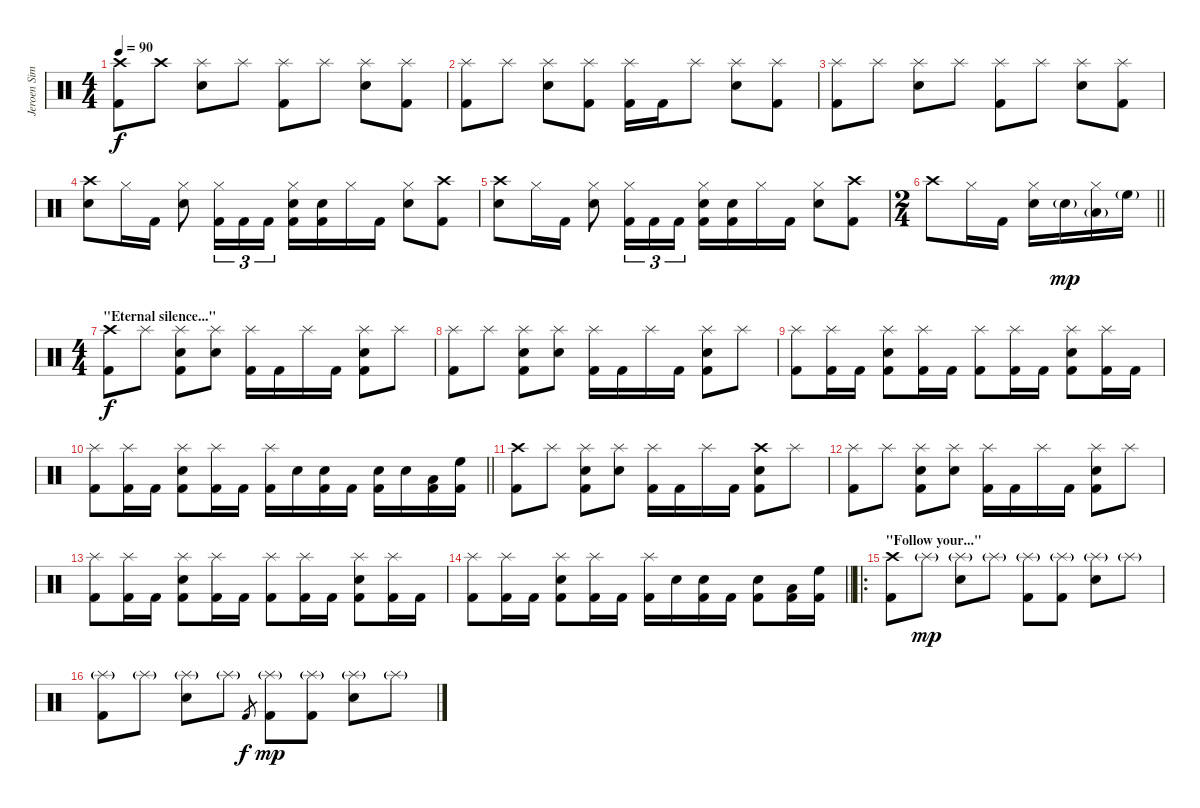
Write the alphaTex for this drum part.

\track ("Jeroen Simons" "Jeroen Sim") {instrument percussion}
\staff {score}
\articulation defaults
\ts (4 4)
\tempo 90
\clef neutral
\ks c
("Kick (hit) 2" "Crash high (hit)").8{dy f} "Crash high (hit)".8 ("Snare (hit) 2" "Splash (hit)").8 "Splash (hit)".8 ("Kick (hit) 2" "Splash (hit)").8 "Splash (hit)".8 ("Snare (hit) 2" "Splash (hit)").8 ("Kick (hit) 2" "Splash (hit)").8 |
("Kick (hit) 2" "Splash (hit)").8 "Splash (hit)".8 ("Snare (hit) 2" "Splash (hit)").8 ("Kick (hit) 2" "Splash (hit)").8 ("Kick (hit) 2" "Splash (hit)").16 "Kick (hit) 2".16 "Splash (hit)".8 ("Snare (hit) 2" "Splash (hit)").8 ("Kick (hit) 2" "Splash (hit)").8 |
("Kick (hit) 2" "Splash (hit)").8 "Splash (hit)".8 ("Snare (hit) 2" "Splash (hit)").8 "Splash (hit)".8 ("Kick (hit) 2" "Splash (hit)").8 "Splash (hit)".8 ("Snare (hit) 2" "Splash (hit)").8 ("Kick (hit) 2" "Splash (hit)").8 |
("Snare (hit) 2" "Crash high (hit)").8 "Hi-Hat (closed)".16 "Kick (hit) 2".16 ("Snare (hit) 2" "Hi-Hat (closed)").8 ("Kick (hit) 2" "Hi-Hat (closed)").16{tu (3 2)} "Kick (hit) 2".16{tu (3 2)} "Kick (hit) 2".16{tu (3 2)} ("Kick (hit) 2" "Snare (hit) 2" "Hi-Hat (closed)").16 ("Kick (hit) 2" "Snare (hit) 2").16 "Hi-Hat (closed)".16 "Kick (hit) 2".16 ("Snare (hit) 2" "Hi-Hat (closed)").8 ("Kick (hit) 2" "Crash high (hit)").8 |
("Snare (hit) 2" "Crash high (hit)").8 "Hi-Hat (closed)".16 "Kick (hit) 2".16 ("Snare (hit) 2" "Hi-Hat (closed)").8 ("Kick (hit) 2" "Hi-Hat (closed)").16{tu (3 2)} "Kick (hit) 2".16{tu (3 2)} "Kick (hit) 2".16{tu (3 2)} ("Kick (hit) 2" "Snare (hit) 2" "Hi-Hat (closed)").16 ("Kick (hit) 2" "Snare (hit) 2").16 "Hi-Hat (closed)".16 "Kick (hit) 2".16 ("Snare (hit) 2" "Hi-Hat (closed)").8 ("Kick (hit) 2" "Crash high (hit)").8 |
\ts (2 4)
\barLineRight lightlight "Crash high (hit)".8 "Hi-Hat (closed)".16 "Kick (hit) 2".16
("Snare (hit) 2" "Hi-Hat (closed)").16 "Snare (hit) 2"{g}.16{dy mp} ("Low Tom (hit)"{g} "Hi-Hat (closed)").16 "High Floor Tom (hit)"{g}.16 |
\ts (4 4)
\section ("" "\"Eternal silence...\"")
("Kick (hit) 2" "Crash high (hit)").8{dy f} "Splash (hit)".8 ("Kick (hit) 2" "Snare (hit) 2" "Splash (hit)").8 ("Snare (hit) 2" "Splash (hit)").8 ("Kick (hit) 2" "Splash (hit)").16 "Kick (hit) 2".16 "Splash (hit)".16 "Kick (hit) 2".16 ("Kick (hit) 2" "Snare (hit) 2" "Splash (hit)").8 "Splash (hit)".8 |
("Kick (hit) 2" "Splash (hit)").8 "Splash (hit)".8 ("Kick (hit) 2" "Snare (hit) 2" "Splash (hit)").8 ("Snare (hit) 2" "Splash (hit)").8 ("Kick (hit) 2" "Splash (hit)").16 "Kick (hit) 2".16 "Splash (hit)".16 "Kick (hit) 2".16 ("Kick (hit) 2" "Snare (hit) 2" "Splash (hit)").8 "Splash (hit)".8 |
("Kick (hit) 2" "Splash (hit)").8 ("Kick (hit) 2" "Splash (hit)").16 "Kick (hit) 2".16 ("Kick (hit) 2" "Snare (hit) 2" "Splash (hit)").8 ("Kick (hit) 2" "Splash (hit)").16 "Kick (hit) 2".16 ("Kick (hit) 2" "Splash (hit)").8 ("Kick (hit) 2" "Splash (hit)").16 "Kick (hit) 2".16 ("Kick (hit) 2" "Snare (hit) 2" "Splash (hit)").8 ("Kick (hit) 2" "Splash (hit)").16 "Kick (hit) 2".16 |
\barLineRight lightlight
("Kick (hit) 2" "Splash (hit)").8 ("Kick (hit) 2" "Splash (hit)").16 "Kick (hit) 2".16 ("Kick (hit) 2" "Snare (hit) 2" "Splash (hit)").8 ("Kick (hit) 2" "Splash (hit)").16 "Kick (hit) 2".16 ("Kick (hit) 2" "Splash (hit)").16 "Snare (hit) 2".16 ("Kick (hit) 2" "Snare (hit) 2").16 "Kick (hit) 2".16 ("Kick (hit) 2" "Snare (hit) 2").16 "Snare (hit) 2".16 ("Kick (hit) 2" "Low Tom (hit)").16 ("Kick (hit) 2" "High Floor Tom (hit)").16 |
("Kick (hit) 2" "Crash high (hit)").8 "Splash (hit)".8 ("Kick (hit) 2" "Snare (hit) 2" "Splash (hit)").8 ("Snare (hit) 2" "Splash (hit)").8 ("Kick (hit) 2" "Splash (hit)").16 "Kick (hit) 2".16 "Splash (hit)".16 "Kick (hit) 2".16 ("Kick (hit) 2" "Snare (hit) 2" "Crash high (hit)").8 "Splash (hit)".8 |
("Kick (hit) 2" "Splash (hit)").8 "Splash (hit)".8 ("Kick (hit) 2" "Snare (hit) 2" "Splash (hit)").8 ("Snare (hit) 2" "Splash (hit)").8 ("Kick (hit) 2" "Splash (hit)").16 "Kick (hit) 2".16 "Splash (hit)".16 "Kick (hit) 2".16 ("Kick (hit) 2" "Snare (hit) 2" "Splash (hit)").8 "Splash (hit)".8 |
("Kick (hit) 2" "Splash (hit)").8 ("Kick (hit) 2" "Splash (hit)").16 "Kick (hit) 2".16 ("Kick (hit) 2" "Snare (hit) 2" "Splash (hit)").8 ("Kick (hit) 2" "Splash (hit)").16 "Kick (hit) 2".16 ("Kick (hit) 2" "Splash (hit)").8 ("Kick (hit) 2" "Splash (hit)").16 "Kick (hit) 2".16 ("Kick (hit) 2" "Snare (hit) 2" "Splash (hit)").8 ("Kick (hit) 2" "Splash (hit)").16 "Kick (hit) 2".16 |
\barLineRight lightlight
("Kick (hit) 2" "Splash (hit)").8 ("Kick (hit) 2" "Splash (hit)").16 "Kick (hit) 2".16 ("Kick (hit) 2" "Snare (hit) 2" "Splash (hit)").8 ("Kick (hit) 2" "Splash (hit)").16 "Kick (hit) 2".16 ("Kick (hit) 2" "Splash (hit)").16 "Snare (hit) 2".16 ("Kick (hit) 2" "Snare (hit) 2").16 "Kick (hit) 2".16 ("Kick (hit) 2" "Snare (hit) 2").8 ("Kick (hit) 2" "Low Tom (hit)").16 ("Kick (hit) 2" "High Floor Tom (hit)").16 |
\ro
\section ("" "\"Follow your...\"")
("Kick (hit) 2" "Crash high (hit)").8 "Splash (hit)"{g}.8{dy mp} ("Snare (hit) 2" "Splash (hit)"{g}).8 "Splash (hit)"{g}.8 ("Kick (hit) 2" "Splash (hit)"{g}).8 ("Kick (hit) 2" "Splash (hit)"{g}).8 ("Snare (hit) 2" "Splash (hit)"{g}).8 "Splash (hit)"{g}.8 |
("Kick (hit) 2" "Splash (hit)"{g}).8 "Splash (hit)"{g}.8 ("Snare (hit) 2" "Splash (hit)"{g}).8 "Splash (hit)"{g}.8 "Kick (hit) 2".8{gr dy f} ("Kick (hit) 2" "Splash (hit)"{g}).8{dy mp} ("Kick (hit) 2" "Splash (hit)"{g}).8 ("Snare (hit) 2" "Splash (hit)"{g}).8 "Splash (hit)"{g}.8
